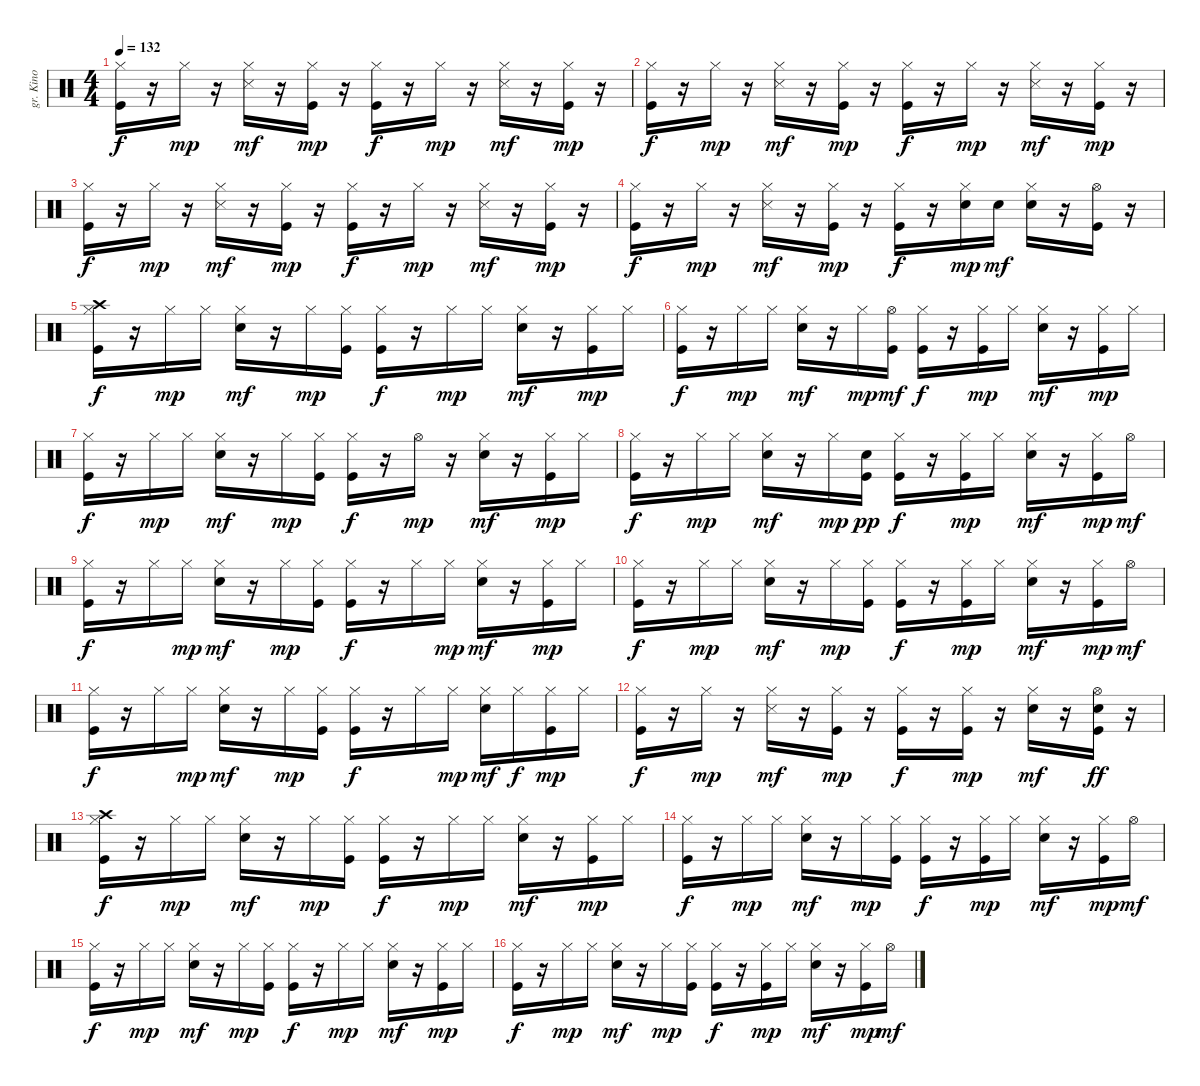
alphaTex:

\track ("gr. Kino" "gr. Kino") {instrument percussion}
\staff {score}
\articulation defaults
\ts (4 4)
\tempo 132
\clef neutral
\ks c
("Kick (hit)" "Hi-Hat (closed)").16{dy f} r.16 "Hi-Hat (closed)".16{dy mp} r.16 ("Hi-Hat (closed)" "Snare (side stick) 3").16{dy mf} r.16 ("Kick (hit)" "Hi-Hat (closed)").16{dy mp} r.16 ("Kick (hit)" "Hi-Hat (closed)").16{dy f} r.16 "Hi-Hat (closed)".16{dy mp} r.16 ("Hi-Hat (closed)" "Snare (side stick) 3").16{dy mf} r.16 ("Kick (hit)" "Hi-Hat (closed)").16{dy mp} r.16 |
("Kick (hit)" "Hi-Hat (closed)").16{dy f} r.16 "Hi-Hat (closed)".16{dy mp} r.16 ("Hi-Hat (closed)" "Snare (side stick) 3").16{dy mf} r.16 ("Kick (hit)" "Hi-Hat (closed)").16{dy mp} r.16 ("Kick (hit)" "Hi-Hat (closed)").16{dy f} r.16 "Hi-Hat (closed)".16{dy mp} r.16 ("Hi-Hat (closed)" "Snare (side stick) 3").16{dy mf} r.16 ("Kick (hit)" "Hi-Hat (closed)").16{dy mp} r.16 |
("Kick (hit)" "Hi-Hat (closed)").16{dy f} r.16 "Hi-Hat (closed)".16{dy mp} r.16 ("Hi-Hat (closed)" "Snare (side stick) 3").16{dy mf} r.16 ("Kick (hit)" "Hi-Hat (closed)").16{dy mp} r.16 ("Kick (hit)" "Hi-Hat (closed)").16{dy f} r.16 "Hi-Hat (closed)".16{dy mp} r.16 ("Hi-Hat (closed)" "Snare (side stick) 3").16{dy mf} r.16 ("Kick (hit)" "Hi-Hat (closed)").16{dy mp} r.16 |
("Kick (hit)" "Hi-Hat (closed)").16{dy f} r.16 "Hi-Hat (closed)".16{dy mp} r.16 ("Hi-Hat (closed)" "Snare (side stick) 3").16{dy mf} r.16 ("Kick (hit)" "Hi-Hat (closed)").16{dy mp} r.16 ("Kick (hit)" "Hi-Hat (closed)").16{dy f} r.16 ("Snare (hit) 2" "Hi-Hat (closed)").16{dy mp} "Snare (hit) 2".16{dy mf} ("Snare (hit) 2" "Hi-Hat (closed)").16 r.16 ("Kick (hit)" "Hi-Hat (open)").16 r.16 |
("Kick (hit)" "Hi-Hat (closed)" "Crash high (hit)").16{dy f} r.16 "Hi-Hat (closed)".16{dy mp} "Hi-Hat (closed)".16 ("Snare (hit) 2" "Hi-Hat (closed)").16{dy mf} r.16 "Hi-Hat (closed)".16{dy mp} ("Kick (hit)" "Hi-Hat (closed)").16 ("Kick (hit)" "Hi-Hat (closed)").16{dy f} r.16 "Hi-Hat (closed)".16{dy mp} "Hi-Hat (closed)".16 ("Snare (hit) 2" "Hi-Hat (closed)").16{dy mf} r.16 ("Kick (hit)" "Hi-Hat (closed)").16{dy mp} "Hi-Hat (closed)".16 |
("Kick (hit)" "Hi-Hat (closed)").16{dy f} r.16 "Hi-Hat (closed)".16{dy mp} "Hi-Hat (closed)".16 ("Snare (hit) 2" "Hi-Hat (closed)").16{dy mf} r.16 "Hi-Hat (closed)".16{dy mp} ("Kick (hit)" "Hi-Hat (open)").16{dy mf} ("Kick (hit)" "Hi-Hat (closed)").16{dy f} r.16 ("Kick (hit)" "Hi-Hat (closed)").16{dy mp} "Hi-Hat (closed)".16 ("Snare (hit) 2" "Hi-Hat (closed)").16{dy mf} r.16 ("Kick (hit)" "Hi-Hat (closed)").16{dy mp} "Hi-Hat (closed)".16 |
("Kick (hit)" "Hi-Hat (closed)").16{dy f} r.16 "Hi-Hat (closed)".16{dy mp} "Hi-Hat (closed)".16 ("Snare (hit) 2" "Hi-Hat (closed)").16{dy mf} r.16 "Hi-Hat (closed)".16{dy mp} ("Kick (hit)" "Hi-Hat (closed)").16 ("Kick (hit)" "Hi-Hat (closed)").16{dy f} r.16 "Hi-Hat (open)".16{dy mp} r.16 ("Snare (hit) 2" "Hi-Hat (closed)").16{dy mf} r.16 ("Kick (hit)" "Hi-Hat (closed)").16{dy mp} "Hi-Hat (closed)".16 |
("Kick (hit)" "Hi-Hat (closed)").16{dy f} r.16 "Hi-Hat (closed)".16{dy mp} "Hi-Hat (closed)".16 ("Snare (hit) 2" "Hi-Hat (closed)").16{dy mf} r.16 "Hi-Hat (closed)".16{dy mp} ("Kick (hit)" "Snare (hit) 2").16{dy pp} ("Kick (hit)" "Hi-Hat (closed)").16{dy f} r.16 ("Kick (hit)" "Hi-Hat (closed)").16{dy mp} "Hi-Hat (closed)".16 ("Snare (hit) 2" "Hi-Hat (closed)").16{dy mf} r.16 ("Kick (hit)" "Hi-Hat (closed)").16{dy mp} "Hi-Hat (open)".16{dy mf} |
("Kick (hit)" "Hi-Hat (closed)").16{dy f} r.16 "Hi-Hat (closed)".16 "Hi-Hat (closed)".16{dy mp} ("Snare (hit) 2" "Hi-Hat (closed)").16{dy mf} r.16 "Hi-Hat (closed)".16{dy mp} ("Kick (hit)" "Hi-Hat (closed)").16 ("Kick (hit)" "Hi-Hat (closed)").16{dy f} r.16 "Hi-Hat (closed)".16 "Hi-Hat (closed)".16{dy mp} ("Snare (hit) 2" "Hi-Hat (closed)").16{dy mf} r.16 ("Kick (hit)" "Hi-Hat (closed)").16{dy mp} "Hi-Hat (closed)".16 |
("Kick (hit)" "Hi-Hat (closed)").16{dy f} r.16 "Hi-Hat (closed)".16{dy mp} "Hi-Hat (closed)".16 ("Snare (hit) 2" "Hi-Hat (closed)").16{dy mf} r.16 "Hi-Hat (closed)".16{dy mp} ("Kick (hit)" "Hi-Hat (closed)").16 ("Kick (hit)" "Hi-Hat (closed)").16{dy f} r.16 ("Kick (hit)" "Hi-Hat (closed)").16{dy mp} "Hi-Hat (closed)".16 ("Snare (hit) 2" "Hi-Hat (closed)").16{dy mf} r.16 ("Kick (hit)" "Hi-Hat (closed)").16{dy mp} "Hi-Hat (open)".16{dy mf} |
("Kick (hit)" "Hi-Hat (closed)").16{dy f} r.16 "Hi-Hat (closed)".16 "Hi-Hat (closed)".16{dy mp} ("Snare (hit) 2" "Hi-Hat (closed)").16{dy mf} r.16 "Hi-Hat (closed)".16{dy mp} ("Kick (hit)" "Hi-Hat (closed)").16 ("Kick (hit)" "Hi-Hat (closed)").16{dy f} r.16 "Hi-Hat (closed)".16 "Hi-Hat (closed)".16{dy mp} ("Snare (hit) 2" "Hi-Hat (closed)").16{dy mf} "Hi-Hat (closed)".16{dy f} ("Kick (hit)" "Hi-Hat (closed)").16{dy mp} "Hi-Hat (closed)".16 |
("Kick (hit)" "Hi-Hat (closed)").16{dy f} r.16 "Hi-Hat (closed)".16{dy mp} r.16 ("Hi-Hat (closed)" "Snare (side stick) 3").16{dy mf} r.16 ("Kick (hit)" "Hi-Hat (closed)").16{dy mp} r.16 ("Kick (hit)" "Hi-Hat (closed)").16{dy f} r.16 ("Kick (hit)" "Hi-Hat (closed)").16{dy mp} r.16 ("Snare (hit) 2" "Hi-Hat (closed)").16{dy mf} r.16 ("Kick (hit)" "Snare (hit) 2" "Hi-Hat (open)").16{dy ff} r.16 |
("Kick (hit)" "Hi-Hat (closed)" "Crash high (hit)").16{dy f} r.16 "Hi-Hat (closed)".16{dy mp} "Hi-Hat (closed)".16 ("Snare (hit) 2" "Hi-Hat (closed)").16{dy mf} r.16 "Hi-Hat (closed)".16{dy mp} ("Kick (hit)" "Hi-Hat (closed)").16 ("Kick (hit)" "Hi-Hat (closed)").16{dy f} r.16 "Hi-Hat (closed)".16{dy mp} "Hi-Hat (closed)".16 ("Snare (hit) 2" "Hi-Hat (closed)").16{dy mf} r.16 ("Kick (hit)" "Hi-Hat (closed)").16{dy mp} "Hi-Hat (closed)".16 |
("Kick (hit)" "Hi-Hat (closed)").16{dy f} r.16 "Hi-Hat (closed)".16{dy mp} "Hi-Hat (closed)".16 ("Snare (hit) 2" "Hi-Hat (closed)").16{dy mf} r.16 "Hi-Hat (closed)".16{dy mp} ("Kick (hit)" "Hi-Hat (closed)").16 ("Kick (hit)" "Hi-Hat (closed)").16{dy f} r.16 ("Kick (hit)" "Hi-Hat (closed)").16{dy mp} "Hi-Hat (closed)".16 ("Snare (hit) 2" "Hi-Hat (closed)").16{dy mf} r.16 ("Kick (hit)" "Hi-Hat (closed)").16{dy mp} "Hi-Hat (open)".16{dy mf} |
("Kick (hit)" "Hi-Hat (closed)").16{dy f} r.16 "Hi-Hat (closed)".16{dy mp} "Hi-Hat (closed)".16 ("Snare (hit) 2" "Hi-Hat (closed)").16{dy mf} r.16 "Hi-Hat (closed)".16{dy mp} ("Kick (hit)" "Hi-Hat (closed)").16 ("Kick (hit)" "Hi-Hat (closed)").16{dy f} r.16 "Hi-Hat (closed)".16{dy mp} "Hi-Hat (closed)".16 ("Snare (hit) 2" "Hi-Hat (closed)").16{dy mf} r.16 ("Kick (hit)" "Hi-Hat (closed)").16{dy mp} "Hi-Hat (closed)".16 |
("Kick (hit)" "Hi-Hat (closed)").16{dy f} r.16 "Hi-Hat (closed)".16{dy mp} "Hi-Hat (closed)".16 ("Snare (hit) 2" "Hi-Hat (closed)").16{dy mf} r.16 "Hi-Hat (closed)".16{dy mp} ("Kick (hit)" "Hi-Hat (closed)").16 ("Kick (hit)" "Hi-Hat (closed)").16{dy f} r.16 ("Kick (hit)" "Hi-Hat (closed)").16{dy mp} "Hi-Hat (closed)".16 ("Snare (hit) 2" "Hi-Hat (closed)").16{dy mf} r.16 ("Kick (hit)" "Hi-Hat (closed)").16{dy mp} "Hi-Hat (open)".16{dy mf}
